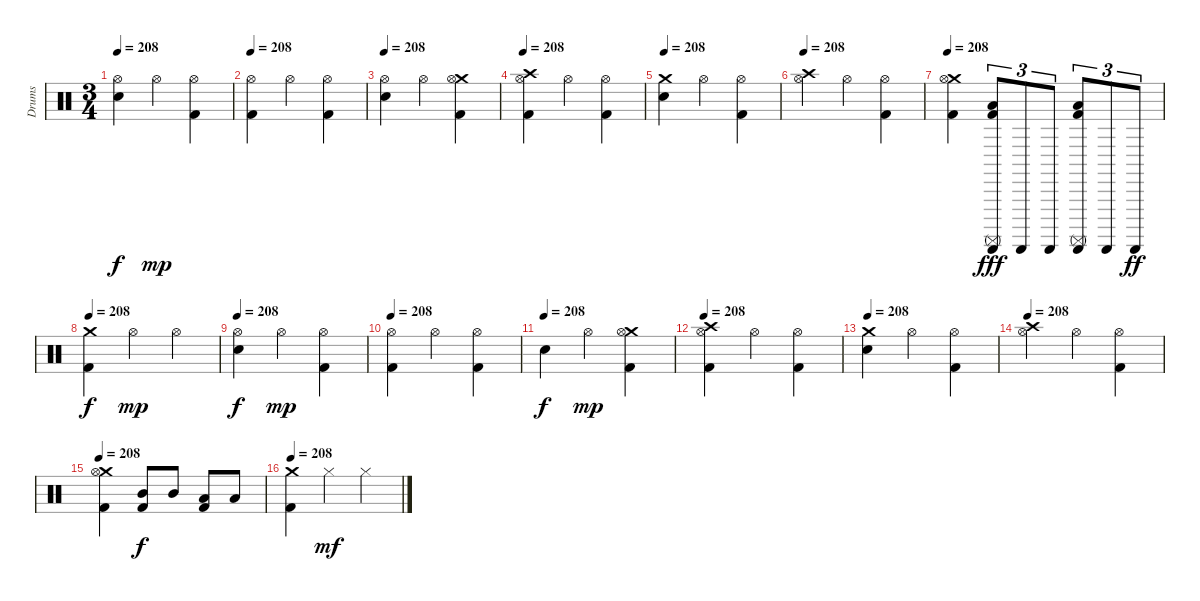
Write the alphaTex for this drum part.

\track ("Drums" "Drums") {instrument percussion}
\staff {score}
\articulation defaults
\ts (3 4)
\tempo 208
\clef neutral
\ks c
("Hi-Hat (open)" "Electric Snare (hit)").4{dy f} "Hi-Hat (open)".4{dy mp} ("Hi-Hat (open)" "Kick (hit) 2").4 |
\tempo 208
("Hi-Hat (open)" "Kick (hit) 2").4 "Hi-Hat (open)".4 ("Hi-Hat (open)" "Kick (hit) 2").4 |
\tempo 208
("Electric Snare (hit)" "Hi-Hat (open)").4 "Hi-Hat (open)".4 ("Crash medium (hit)" "Hi-Hat (open)" "Kick (hit) 2").4 |
\tempo 208
("Crash high (hit)" "Hi-Hat (open)" "Kick (hit) 2").4 "Hi-Hat (open)".4 ("Hi-Hat (open)" "Kick (hit) 2").4 |
\tempo 208
("Crash medium (hit)" "Electric Snare (hit)").4 "Hi-Hat (open)".4 ("Hi-Hat (open)" "Kick (hit) 2").4 |
\tempo 208
("Crash high (hit)" "Hi-Hat (open)").4 "Hi-Hat (open)".4 ("Hi-Hat (open)" "Kick (hit) 2").4 |
\tempo 208
("Crash medium (hit)" "Hi-Hat (open)" "Kick (hit) 2").4 ("Surdo (mute)" "Guiro (scrap-return)" "Low Tom (hit)" "Kick (hit) 2").8{tu (3 2) dy fff} "Guiro (scrap-return)".8{tu (3 2)} "Guiro (scrap-return)".8{tu (3 2)} ("Surdo (mute)" "Guiro (scrap-return)" "Low Tom (hit)" "Kick (hit) 2").8{tu (3 2)} "Guiro (scrap-return)".8{tu (3 2)} "Guiro (scrap-return)".8{tu (3 2) dy ff} |
\tempo 208
("Crash medium (hit)" "Kick (hit) 2").4{dy f} "Hi-Hat (open)".4{dy mp} "Hi-Hat (open)".4 |
\tempo 208
("Hi-Hat (open)" "Electric Snare (hit)").4{dy f} "Hi-Hat (open)".4{dy mp} ("Hi-Hat (open)" "Kick (hit) 2").4 |
\tempo 208
("Hi-Hat (open)" "Kick (hit) 2").4 "Hi-Hat (open)".4 ("Hi-Hat (open)" "Kick (hit) 2").4 |
\tempo (208)
"Electric Snare (hit)".4{dy f} "Hi-Hat (open)".4{dy mp} ("Crash medium (hit)" "Hi-Hat (open)" "Kick (hit) 2").4 |
\tempo 208
("Crash high (hit)" "Hi-Hat (open)" "Kick (hit) 2").4 "Hi-Hat (open)".4 ("Hi-Hat (open)" "Kick (hit) 2").4 |
\tempo 208
("Crash medium (hit)" "Electric Snare (hit)").4 "Hi-Hat (open)".4 ("Hi-Hat (open)" "Kick (hit) 2").4 |
\tempo 208
("Crash high (hit)" "Hi-Hat (open)").4 "Hi-Hat (open)".4 ("Hi-Hat (open)" "Kick (hit) 2").4 |
\tempo 208
("Crash medium (hit)" "Hi-Hat (open)" "Kick (hit) 2").4 ("Mid Tom (hit)" "Kick (hit) 2").8{dy f} "Mid Tom (hit)".8 ("Low Tom (hit)" "Kick (hit) 2").8 "Low Tom (hit)".8 |
\tempo 208
("Crash medium (hit)" "Kick (hit) 2").4 "Hi-Hat (closed)".4{dy mf} "Hi-Hat (closed)".4
